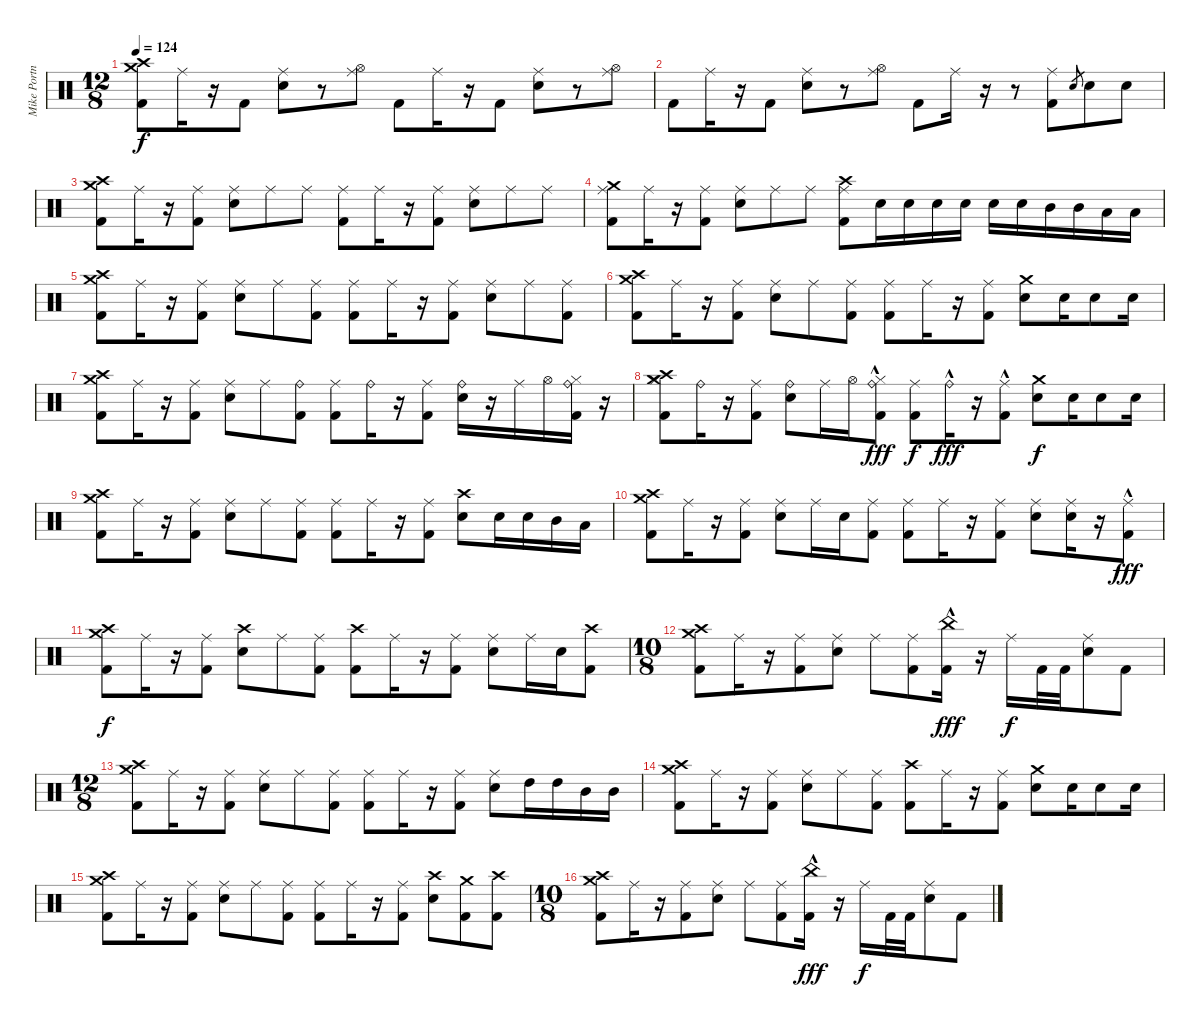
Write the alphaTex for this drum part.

\track ("Mike Portnoy Drums" "Mike Portn") {instrument percussion}
\staff {score}
\articulation defaults
\ts (12 8)
\tempo 124
\clef neutral
\ks c
("Crash medium (hit)" "Crash high (hit)" "Kick (hit) 2").8{dy f} "Ride (middle)".16 r.16 "Kick (hit) 2".8 ("Ride (middle)" "Electric Snare (hit)").8 r.8 ("Ride (middle)" "Hi-Hat (open)").8 "Kick (hit) 2".8 "Ride (middle)".16 r.16 "Kick (hit) 2".8 ("Ride (middle)" "Electric Snare (hit)").8 r.8 ("Ride (middle)" "Hi-Hat (open)").8 |
"Kick (hit) 2".8 "Ride (middle)".16 r.16 "Kick (hit) 2".8 ("Ride (middle)" "Electric Snare (hit)").8 r.8 ("Ride (middle)" "Hi-Hat (open)").8 "Kick (hit) 2".8 "Ride (middle)".16 r.16 r.8 ("Ride (middle)" "Kick (hit) 2").8 "Electric Snare (hit)".8{gr} "Electric Snare (hit)".8 "Electric Snare (hit)".8 |
("Crash medium (hit)" "Crash high (hit)" "Kick (hit) 2").8 "Ride (middle)".16 r.16 ("Ride (middle)" "Kick (hit) 2").8 ("Ride (middle)" "Electric Snare (hit)").8 "Ride (middle)".8 "Ride (middle)".8 ("Ride (middle)" "Kick (hit) 2").8 "Ride (middle)".16 r.16 ("Ride (middle)" "Kick (hit) 2").8 ("Ride (middle)" "Electric Snare (hit)").8 "Ride (middle)".8 "Ride (middle)".8 |
("Crash medium (hit)" "Ride (middle)" "Kick (hit) 2").8 "Ride (middle)".16 r.16 ("Ride (middle)" "Kick (hit) 2").8 ("Ride (middle)" "Electric Snare (hit)").8 "Ride (middle)".8 "Ride (middle)".8 ("Crash high (hit)" "Ride (middle)" "Kick (hit) 2").8 "Electric Snare (hit)".16 "Electric Snare (hit)".16 "Electric Snare (hit)".16 "Electric Snare (hit)".16 "Electric Snare (hit)".16 "Electric Snare (hit)".16 "Mid Tom (hit)".16 "Mid Tom (hit)".16 "Low Tom (hit)".16 "Low Floor Tom (hit)".16 |
("Crash medium (hit)" "Crash high (hit)" "Kick (hit) 2").8 "Ride (middle)".16 r.16 ("Ride (middle)" "Kick (hit) 2").8 ("Ride (middle)" "Electric Snare (hit)").8 "Ride (middle)".8 ("Ride (middle)" "Kick (hit) 2").8 ("Ride (middle)" "Kick (hit) 2").8 "Ride (middle)".16 r.16 ("Ride (middle)" "Kick (hit) 2").8 ("Ride (middle)" "Electric Snare (hit)").8 "Ride (middle)".8 ("Ride (middle)" "Kick (hit) 2").8 |
("Crash medium (hit)" "Crash high (hit)" "Kick (hit) 2").8 "Ride (middle)".16 r.16 ("Ride (middle)" "Kick (hit) 2").8 ("Ride (middle)" "Electric Snare (hit)").8 "Ride (middle)".8 ("Ride (middle)" "Kick (hit) 2").8 ("Ride (middle)" "Kick (hit) 2").8 "Ride (middle)".16 r.16 ("Ride (middle)" "Kick (hit) 2").8 ("Crash medium (hit)" "Electric Snare (hit)").8 "Electric Snare (hit)".16 "Electric Snare (hit)".8 "Electric Snare (hit)".16 |
("Crash medium (hit)" "Crash high (hit)" "Kick (hit) 2").8 "Ride (middle)".16 r.16 ("Ride (middle)" "Kick (hit) 2").8 ("Ride (middle)" "Electric Snare (hit)").8 "Ride (middle)".8 ("Ride (bell)" "Kick (hit) 2").8 ("Ride (middle)" "Kick (hit) 2").8 "Ride (bell)".16 r.16 ("Ride (middle)" "Kick (hit) 2").8 ("Ride (bell)" "Electric Snare (hit)").16 r.16 "Ride (middle)".16 "Hi-Hat (open)".16 ("Ride (bell)" "Hi-Hat (closed)" "Kick (hit) 2").16 r.16 |
("Crash medium (hit)" "Crash high (hit)" "Hi-Hat (closed)" "Kick (hit) 2").8 "Ride (bell)".16 r.16 ("Ride (middle)" "Kick (hit) 2").8 ("Ride (bell)" "Electric Snare (hit)").8 "Ride (middle)".16 "Hi-Hat (open)".16 ("Ride (bell)"{hac} "Hi-Hat (closed)" "Kick (hit) 2").8{dy fff} ("Ride (middle)" "Kick (hit) 2").8{dy f} "Ride (bell)"{hac}.16{dy fff} r.16 ("Ride (middle)"{hac} "Kick (hit) 2").8 ("Crash medium (hit)" "Electric Snare (hit)").8{dy f} "Electric Snare (hit)".16 "Electric Snare (hit)".8 "Electric Snare (hit)".16 |
("Crash medium (hit)" "Crash high (hit)" "Kick (hit) 2").8 "Ride (middle)".16 r.16 ("Ride (middle)" "Kick (hit) 2").8 ("Ride (middle)" "Electric Snare (hit)").8 "Ride (middle)".8 ("Ride (middle)" "Kick (hit) 2").8 ("Ride (middle)" "Kick (hit) 2").8 "Ride (middle)".16 r.16 ("Ride (middle)" "Kick (hit) 2").8 ("Crash high (hit)" "Electric Snare (hit)").8 "Electric Snare (hit)".16 "Electric Snare (hit)".16 "Mid Tom (hit)".16 "Low Tom (hit)".16 |
("Crash medium (hit)" "Crash high (hit)" "Kick (hit) 2").8 "Ride (middle)".16 r.16 ("Ride (middle)" "Kick (hit) 2").8 ("Ride (middle)" "Electric Snare (hit)").8 "Ride (middle)".16 "Electric Snare (hit)".16 ("Ride (middle)" "Kick (hit) 2").8 ("Ride (middle)" "Kick (hit) 2").8 "Ride (middle)".16 r.16 ("Ride (middle)" "Kick (hit) 2").8 ("Ride (middle)" "Electric Snare (hit)").8 ("Ride (middle)" "Electric Snare (hit)").16 r.16 ("Ride (middle)"{hac} "Kick (hit) 2").8{dy fff} |
("Crash medium (hit)" "Crash high (hit)" "Kick (hit) 2").8{dy f} "Ride (middle)".16 r.16 ("Ride (middle)" "Kick (hit) 2").8 ("Crash high (hit)" "Electric Snare (hit)").8 "Ride (middle)".8 ("Ride (middle)" "Kick (hit) 2").8 ("Crash high (hit)" "Kick (hit) 2").8 "Ride (middle)".16 r.16 ("Ride (middle)" "Kick (hit) 2").8 ("Ride (middle)" "Electric Snare (hit)").8 "Ride (middle)".16 "Electric Snare (hit)".16 ("Crash high (hit)" "Kick (hit) 2").8 |
\ts (10 8)
("Crash medium (hit)" "Crash high (hit)" "Kick (hit) 2").8 "Ride (middle)".16 r.16 ("Ride (middle)" "Kick (hit) 2").8 ("Ride (middle)" "Electric Snare (hit)").8 "Ride (middle)".8 ("Ride (middle)" "Kick (hit) 2").8 ("China (hit)"{hac} "Kick (hit) 2").16{dy fff} r.16 "Ride (middle)".16{dy f} "Kick (hit) 2".32 "Kick (hit) 2".32 ("Ride (middle)" "Electric Snare (hit)").8 "Kick (hit) 2".8 |
\ts (12 8)
("Crash medium (hit)" "Crash high (hit)" "Kick (hit) 2").8 "Ride (middle)".16 r.16 ("Ride (middle)" "Kick (hit) 2").8 ("Ride (middle)" "Electric Snare (hit)").8 "Ride (middle)".8 ("Ride (middle)" "Kick (hit) 2").8 ("Ride (middle)" "Kick (hit) 2").8 "Ride (middle)".16 r.16 ("Ride (middle)" "Kick (hit) 2").8 ("Ride (middle)" "Electric Snare (hit)").8 "High Tom (hit)".16 "High Tom (hit)".16 "Mid Tom (hit)".16 "Mid Tom (hit)".16 |
("Crash medium (hit)" "Crash high (hit)" "Kick (hit) 2").8 "Ride (middle)".16 r.16 ("Ride (middle)" "Kick (hit) 2").8 ("Ride (middle)" "Electric Snare (hit)").8 "Ride (middle)".8 ("Ride (middle)" "Kick (hit) 2").8 ("Crash high (hit)" "Kick (hit) 2").8 "Ride (middle)".16 r.16 ("Ride (middle)" "Kick (hit) 2").8 ("Crash medium (hit)" "Electric Snare (hit)").8 "Electric Snare (hit)".16 "Electric Snare (hit)".8 "Electric Snare (hit)".16 |
("Crash medium (hit)" "Crash high (hit)" "Kick (hit) 2").8 "Ride (middle)".16 r.16 ("Ride (middle)" "Kick (hit) 2").8 ("Ride (middle)" "Electric Snare (hit)").8 "Ride (middle)".8 ("Ride (middle)" "Kick (hit) 2").8 ("Ride (middle)" "Kick (hit) 2").8 "Ride (middle)".16 r.16 ("Ride (middle)" "Kick (hit) 2").8 ("Crash high (hit)" "Electric Snare (hit)").8 ("Crash medium (hit)" "Kick (hit) 2").8 ("Crash high (hit)" "Kick (hit) 2").8 |
\ts (10 8)
("Crash medium (hit)" "Crash high (hit)" "Kick (hit) 2").8 "Ride (middle)".16 r.16 ("Ride (middle)" "Kick (hit) 2").8 ("Ride (middle)" "Electric Snare (hit)").8 "Ride (middle)".8 ("Ride (middle)" "Kick (hit) 2").8 ("China (hit)"{hac} "Kick (hit) 2").16{dy fff} r.16 "Ride (middle)".16{dy f} "Kick (hit) 2".32 "Kick (hit) 2".32 ("Ride (middle)" "Electric Snare (hit)").8 "Kick (hit) 2".8
